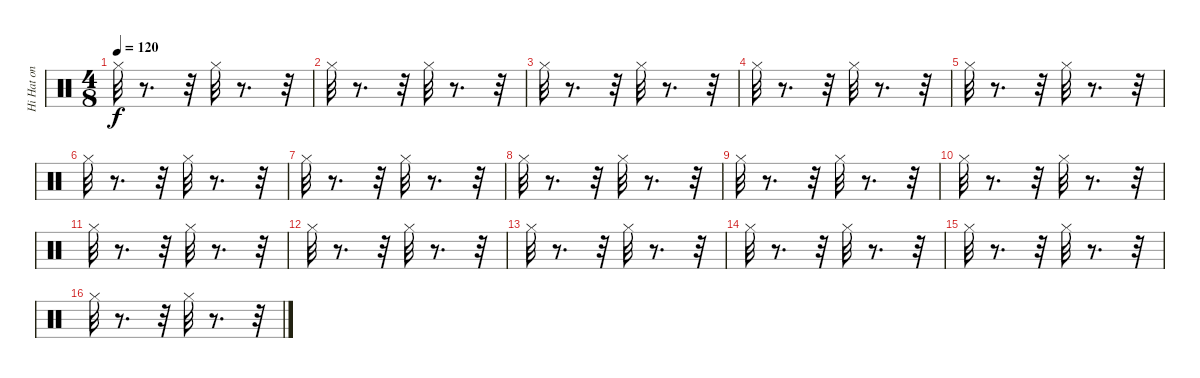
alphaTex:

\track ("Hi Hat on BD" "Hi Hat on ") {instrument percussion}
\staff {score}
\articulation defaults
\ts (4 8)
\tempo 120
\clef neutral
\ks c "Hi-Hat (closed)".32{dy f}
r.8{d} r.32 "Hi-Hat (closed)".32 r.8{d} r.32 |
"Hi-Hat (closed)".32 r.8{d} r.32 "Hi-Hat (closed)".32 r.8{d} r.32 |
"Hi-Hat (closed)".32 r.8{d} r.32 "Hi-Hat (closed)".32 r.8{d} r.32 |
"Hi-Hat (closed)".32 r.8{d} r.32 "Hi-Hat (closed)".32 r.8{d} r.32 |
"Hi-Hat (closed)".32 r.8{d} r.32 "Hi-Hat (closed)".32 r.8{d} r.32 |
"Hi-Hat (closed)".32 r.8{d} r.32 "Hi-Hat (closed)".32 r.8{d} r.32 |
"Hi-Hat (closed)".32 r.8{d} r.32 "Hi-Hat (closed)".32 r.8{d} r.32 |
"Hi-Hat (closed)".32 r.8{d} r.32 "Hi-Hat (closed)".32 r.8{d} r.32 |
"Hi-Hat (closed)".32 r.8{d} r.32 "Hi-Hat (closed)".32 r.8{d} r.32 |
"Hi-Hat (closed)".32 r.8{d} r.32 "Hi-Hat (closed)".32 r.8{d} r.32 |
"Hi-Hat (closed)".32 r.8{d} r.32 "Hi-Hat (closed)".32 r.8{d} r.32 |
"Hi-Hat (closed)".32 r.8{d} r.32 "Hi-Hat (closed)".32 r.8{d} r.32 |
"Hi-Hat (closed)".32 r.8{d} r.32 "Hi-Hat (closed)".32 r.8{d} r.32 |
"Hi-Hat (closed)".32 r.8{d} r.32 "Hi-Hat (closed)".32 r.8{d} r.32 |
"Hi-Hat (closed)".32 r.8{d} r.32 "Hi-Hat (closed)".32 r.8{d} r.32 |
"Hi-Hat (closed)".32 r.8{d} r.32 "Hi-Hat (closed)".32 r.8{d} r.32
